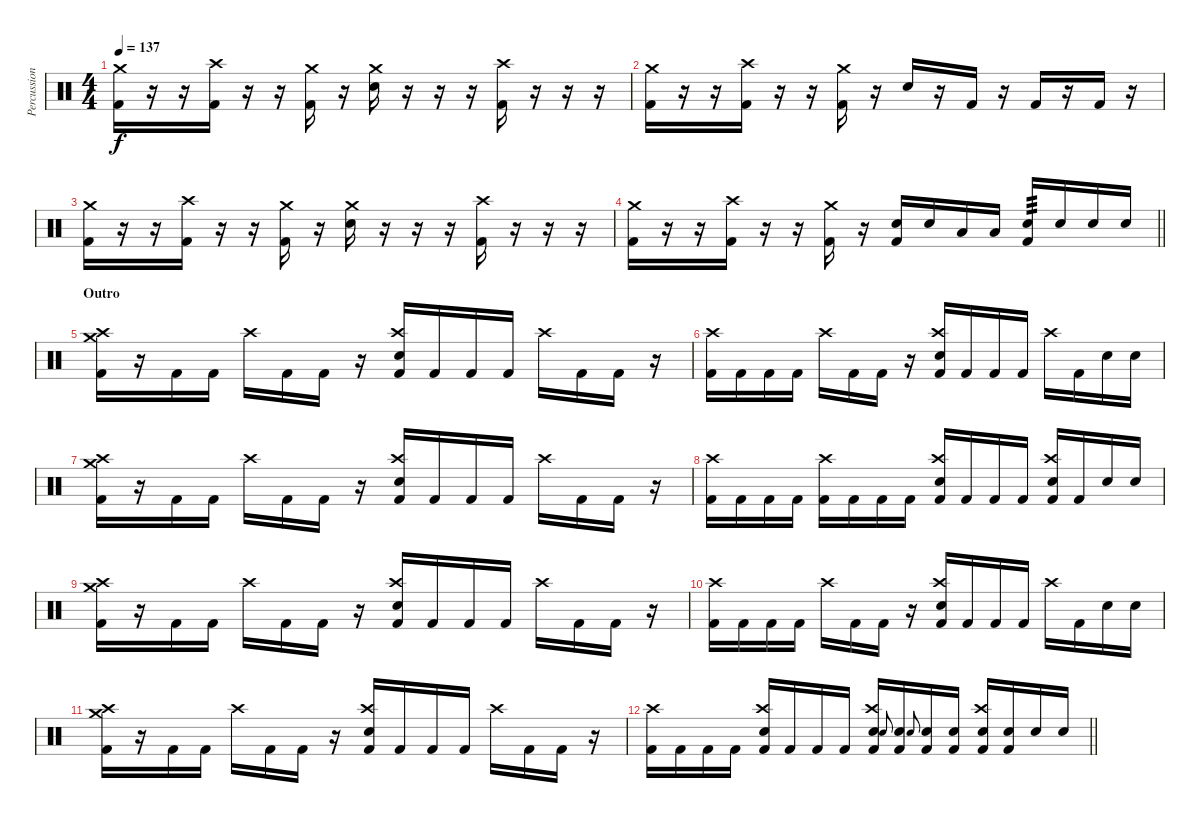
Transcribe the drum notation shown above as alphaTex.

\track ("Percussion" "Percussion") {instrument percussion}
\staff {score}
\articulation defaults
\ts (4 4)
\tempo 137
\clef neutral
\ks c
("Crash medium (hit)" "Kick (hit) 2").16{dy f} r.16 r.16 ("Crash high (hit)" "Kick (hit) 2").16 r.16 r.16 ("Crash medium (hit)" "Kick (hit) 2").16 r.16 ("Crash medium (hit)" "Electric Snare (hit)").16 r.16 r.16 r.16 ("Crash high (hit)" "Kick (hit) 2").16 r.16 r.16 r.16 |
("Crash medium (hit)" "Kick (hit) 2").16 r.16 r.16 ("Crash high (hit)" "Kick (hit) 2").16 r.16 r.16 ("Crash medium (hit)" "Kick (hit) 2").16 r.16 "Electric Snare (hit)".16 r.16 "Kick (hit) 2".16 r.16 "Kick (hit) 2".16 r.16 "Kick (hit) 2".16 r.16 |
("Crash medium (hit)" "Kick (hit) 2").16 r.16 r.16 ("Crash high (hit)" "Kick (hit) 2").16 r.16 r.16 ("Crash medium (hit)" "Kick (hit) 2").16 r.16 ("Crash medium (hit)" "Electric Snare (hit)").16 r.16 r.16 r.16 ("Crash high (hit)" "Kick (hit) 2").16 r.16 r.16 r.16 |
\barLineRight lightlight
("Crash medium (hit)" "Kick (hit) 2").16 r.16 r.16 ("Crash high (hit)" "Kick (hit) 2").16 r.16 r.16 ("Crash medium (hit)" "Kick (hit) 2").16 r.16 ("Electric Snare (hit)" "Kick (hit) 2").16 "Electric Snare (hit)".16 "Low Tom (hit)".16 "Low Tom (hit)".16 ("Electric Snare (hit)" "Kick (hit) 2").16{tp 3} "Electric Snare (hit)".16 "Electric Snare (hit)".16 "Electric Snare (hit)".16 |
\section ("" "Outro")
("Crash high (hit)" "Crash medium (hit)" "Kick (hit) 2").16 r.16 "Kick (hit) 2".16 "Kick (hit) 2".16 "Crash high (hit)".16 "Kick (hit) 2".16 "Kick (hit) 2".16 r.16 ("Crash high (hit)" "Electric Snare (hit)" "Kick (hit) 2").16 "Kick (hit) 2".16 "Kick (hit) 2".16 "Kick (hit) 2".16 "Crash high (hit)".16 "Kick (hit) 2".16 "Kick (hit) 2".16 r.16 |
("Crash high (hit)" "Kick (hit) 2").16 "Kick (hit) 2".16 "Kick (hit) 2".16 "Kick (hit) 2".16 "Crash high (hit)".16 "Kick (hit) 2".16 "Kick (hit) 2".16 r.16 ("Crash high (hit)" "Electric Snare (hit)" "Kick (hit) 2").16 "Kick (hit) 2".16 "Kick (hit) 2".16 "Kick (hit) 2".16 "Crash high (hit)".16 "Kick (hit) 2".16 "Electric Snare (hit)".16 "Electric Snare (hit)".16 |
("Crash high (hit)" "Crash medium (hit)" "Kick (hit) 2").16 r.16 "Kick (hit) 2".16 "Kick (hit) 2".16 "Crash high (hit)".16 "Kick (hit) 2".16 "Kick (hit) 2".16 r.16 ("Crash high (hit)" "Electric Snare (hit)" "Kick (hit) 2").16 "Kick (hit) 2".16 "Kick (hit) 2".16 "Kick (hit) 2".16 "Crash high (hit)".16 "Kick (hit) 2".16 "Kick (hit) 2".16 r.16 |
("Crash high (hit)" "Kick (hit) 2").16 "Kick (hit) 2".16 "Kick (hit) 2".16 "Kick (hit) 2".16 ("Crash high (hit)" "Kick (hit) 2").16 "Kick (hit) 2".16 "Kick (hit) 2".16 "Kick (hit) 2".16 ("Crash high (hit)" "Electric Snare (hit)" "Kick (hit) 2").16 "Kick (hit) 2".16 "Kick (hit) 2".16 "Kick (hit) 2".16 ("Crash high (hit)" "Electric Snare (hit)" "Kick (hit) 2").16 "Kick (hit) 2".16 "Electric Snare (hit)".16 "Electric Snare (hit)".16 |
("Crash high (hit)" "Crash medium (hit)" "Kick (hit) 2").16 r.16 "Kick (hit) 2".16 "Kick (hit) 2".16 "Crash high (hit)".16 "Kick (hit) 2".16 "Kick (hit) 2".16 r.16 ("Crash high (hit)" "Electric Snare (hit)" "Kick (hit) 2").16 "Kick (hit) 2".16 "Kick (hit) 2".16 "Kick (hit) 2".16 "Crash high (hit)".16 "Kick (hit) 2".16 "Kick (hit) 2".16 r.16 |
("Crash high (hit)" "Kick (hit) 2").16 "Kick (hit) 2".16 "Kick (hit) 2".16 "Kick (hit) 2".16 "Crash high (hit)".16 "Kick (hit) 2".16 "Kick (hit) 2".16 r.16 ("Crash high (hit)" "Electric Snare (hit)" "Kick (hit) 2").16 "Kick (hit) 2".16 "Kick (hit) 2".16 "Kick (hit) 2".16 "Crash high (hit)".16 "Kick (hit) 2".16 "Electric Snare (hit)".16 "Electric Snare (hit)".16 |
("Crash high (hit)" "Crash medium (hit)" "Kick (hit) 2").16 r.16 "Kick (hit) 2".16 "Kick (hit) 2".16 "Crash high (hit)".16 "Kick (hit) 2".16 "Kick (hit) 2".16 r.16 ("Crash high (hit)" "Electric Snare (hit)" "Kick (hit) 2").16 "Kick (hit) 2".16 "Kick (hit) 2".16 "Kick (hit) 2".16 "Crash high (hit)".16 "Kick (hit) 2".16 "Kick (hit) 2".16 r.16 |
\barLineRight lightlight
("Crash high (hit)" "Kick (hit) 2").16 "Kick (hit) 2".16 "Kick (hit) 2".16 "Kick (hit) 2".16 ("Crash high (hit)" "Electric Snare (hit)" "Kick (hit) 2").16 "Kick (hit) 2".16 "Kick (hit) 2".16 "Kick (hit) 2".16 ("Crash high (hit)" "Electric Snare (hit)" "Kick (hit) 2").16 "Electric Snare (hit)".8{gr onbeat} ("Electric Snare (hit)" "Kick (hit) 2").16 "Electric Snare (hit)".8{gr onbeat} ("Electric Snare (hit)" "Kick (hit) 2").16 ("Electric Snare (hit)" "Kick (hit) 2").16 ("Crash high (hit)" "Electric Snare (hit)" "Kick (hit) 2").16 ("Electric Snare (hit)" "Kick (hit) 2").16 "Electric Snare (hit)".16 "Electric Snare (hit)".16
